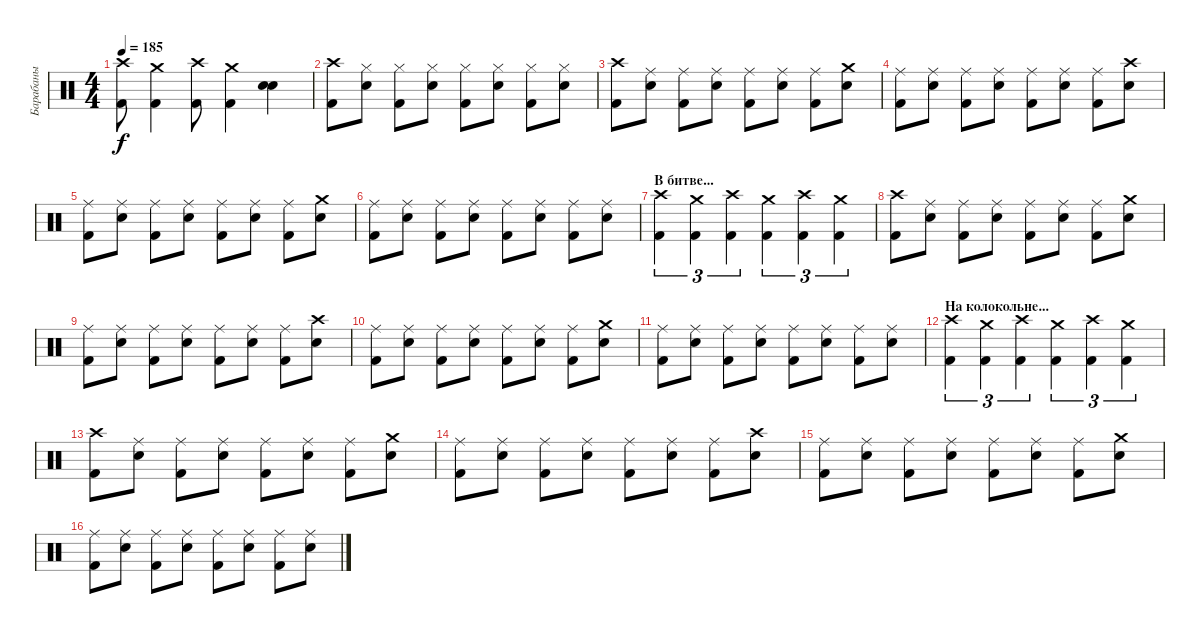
\track ("Барабаны" "Барабаны") {instrument percussion}
\staff {score}
\articulation defaults
\ts (4 4)
\tempo 185
\clef neutral
\ks c
("Crash high (hit)" "Kick (hit) 2").8{dy f} ("Crash medium (hit)" "Kick (hit) 2").4 ("Crash high (hit)" "Kick (hit) 2").8 ("Crash medium (hit)" "Kick (hit) 2").4 ("Snare (hit) 2" "Snare (hit) 2").4 |
("Crash high (hit)" "Kick (hit) 2").8 ("Hi-Hat (closed)" "Snare (hit) 2").8 ("Hi-Hat (closed)" "Kick (hit) 2").8 ("Hi-Hat (closed)" "Snare (hit) 2").8 ("Hi-Hat (closed)" "Kick (hit) 2").8 ("Hi-Hat (closed)" "Snare (hit) 2").8 ("Hi-Hat (closed)" "Kick (hit) 2").8 ("Hi-Hat (closed)" "Snare (hit) 2").8 |
("Crash high (hit)" "Kick (hit) 2").8 ("Ride (middle)" "Snare (hit) 2").8 ("Ride (middle)" "Kick (hit) 2").8 ("Ride (middle)" "Snare (hit) 2").8 ("Ride (middle)" "Kick (hit) 2").8 ("Ride (middle)" "Snare (hit) 2").8 ("Ride (middle)" "Kick (hit) 2").8 ("Crash medium (hit)" "Snare (hit) 2").8 |
("Ride (middle)" "Kick (hit) 2").8 ("Ride (middle)" "Snare (hit) 2").8 ("Ride (middle)" "Kick (hit) 2").8 ("Ride (middle)" "Snare (hit) 2").8 ("Ride (middle)" "Kick (hit) 2").8 ("Ride (middle)" "Snare (hit) 2").8 ("Ride (middle)" "Kick (hit) 2").8 ("Crash high (hit)" "Snare (hit) 2").8 |
("Ride (middle)" "Kick (hit) 2").8 ("Ride (middle)" "Snare (hit) 2").8 ("Ride (middle)" "Kick (hit) 2").8 ("Ride (middle)" "Snare (hit) 2").8 ("Ride (middle)" "Kick (hit) 2").8 ("Ride (middle)" "Snare (hit) 2").8 ("Ride (middle)" "Kick (hit) 2").8 ("Crash medium (hit)" "Snare (hit) 2").8 |
("Ride (middle)" "Kick (hit) 2").8 ("Ride (middle)" "Snare (hit) 2").8 ("Ride (middle)" "Kick (hit) 2").8 ("Ride (middle)" "Snare (hit) 2").8 ("Ride (middle)" "Kick (hit) 2").8 ("Ride (middle)" "Snare (hit) 2").8 ("Ride (middle)" "Kick (hit) 2").8 ("Ride (middle)" "Snare (hit) 2").8 |
\section ("" "В битве...")
("Crash high (hit)" "Kick (hit) 2").4{tu (3 2)} ("Crash medium (hit)" "Kick (hit) 2").4{tu (3 2)} ("Crash high (hit)" "Kick (hit) 2").4{tu (3 2)} ("Crash medium (hit)" "Kick (hit) 2").4{tu (3 2)} ("Crash high (hit)" "Kick (hit) 2").4{tu (3 2)} ("Crash medium (hit)" "Kick (hit) 2").4{tu (3 2)} |
("Crash high (hit)" "Kick (hit) 2").8 ("Ride (middle)" "Snare (hit) 2").8 ("Ride (middle)" "Kick (hit) 2").8 ("Ride (middle)" "Snare (hit) 2").8 ("Ride (middle)" "Kick (hit) 2").8 ("Ride (middle)" "Snare (hit) 2").8 ("Ride (middle)" "Kick (hit) 2").8 ("Crash medium (hit)" "Snare (hit) 2").8 |
("Ride (middle)" "Kick (hit) 2").8 ("Ride (middle)" "Snare (hit) 2").8 ("Ride (middle)" "Kick (hit) 2").8 ("Ride (middle)" "Snare (hit) 2").8 ("Ride (middle)" "Kick (hit) 2").8 ("Ride (middle)" "Snare (hit) 2").8 ("Ride (middle)" "Kick (hit) 2").8 ("Crash high (hit)" "Snare (hit) 2").8 |
("Ride (middle)" "Kick (hit) 2").8 ("Ride (middle)" "Snare (hit) 2").8 ("Ride (middle)" "Kick (hit) 2").8 ("Ride (middle)" "Snare (hit) 2").8 ("Ride (middle)" "Kick (hit) 2").8 ("Ride (middle)" "Snare (hit) 2").8 ("Ride (middle)" "Kick (hit) 2").8 ("Crash medium (hit)" "Snare (hit) 2").8 |
("Ride (middle)" "Kick (hit) 2").8 ("Ride (middle)" "Snare (hit) 2").8 ("Ride (middle)" "Kick (hit) 2").8 ("Ride (middle)" "Snare (hit) 2").8 ("Ride (middle)" "Kick (hit) 2").8 ("Ride (middle)" "Snare (hit) 2").8 ("Ride (middle)" "Kick (hit) 2").8 ("Ride (middle)" "Snare (hit) 2").8 |
\section ("" "На колокольне...")
("Crash high (hit)" "Kick (hit) 2").4{tu (3 2)} ("Crash medium (hit)" "Kick (hit) 2").4{tu (3 2)} ("Crash high (hit)" "Kick (hit) 2").4{tu (3 2)} ("Crash medium (hit)" "Kick (hit) 2").4{tu (3 2)} ("Crash high (hit)" "Kick (hit) 2").4{tu (3 2)} ("Crash medium (hit)" "Kick (hit) 2").4{tu (3 2)} |
("Crash high (hit)" "Kick (hit) 2").8 ("Ride (middle)" "Snare (hit) 2").8 ("Ride (middle)" "Kick (hit) 2").8 ("Ride (middle)" "Snare (hit) 2").8 ("Ride (middle)" "Kick (hit) 2").8 ("Ride (middle)" "Snare (hit) 2").8 ("Ride (middle)" "Kick (hit) 2").8 ("Crash medium (hit)" "Snare (hit) 2").8 |
("Ride (middle)" "Kick (hit) 2").8 ("Ride (middle)" "Snare (hit) 2").8 ("Ride (middle)" "Kick (hit) 2").8 ("Ride (middle)" "Snare (hit) 2").8 ("Ride (middle)" "Kick (hit) 2").8 ("Ride (middle)" "Snare (hit) 2").8 ("Ride (middle)" "Kick (hit) 2").8 ("Crash high (hit)" "Snare (hit) 2").8 |
("Ride (middle)" "Kick (hit) 2").8 ("Ride (middle)" "Snare (hit) 2").8 ("Ride (middle)" "Kick (hit) 2").8 ("Ride (middle)" "Snare (hit) 2").8 ("Ride (middle)" "Kick (hit) 2").8 ("Ride (middle)" "Snare (hit) 2").8 ("Ride (middle)" "Kick (hit) 2").8 ("Crash medium (hit)" "Snare (hit) 2").8 |
("Ride (middle)" "Kick (hit) 2").8 ("Ride (middle)" "Snare (hit) 2").8 ("Ride (middle)" "Kick (hit) 2").8 ("Ride (middle)" "Snare (hit) 2").8 ("Ride (middle)" "Kick (hit) 2").8 ("Ride (middle)" "Snare (hit) 2").8 ("Ride (middle)" "Kick (hit) 2").8 ("Ride (middle)" "Snare (hit) 2").8
